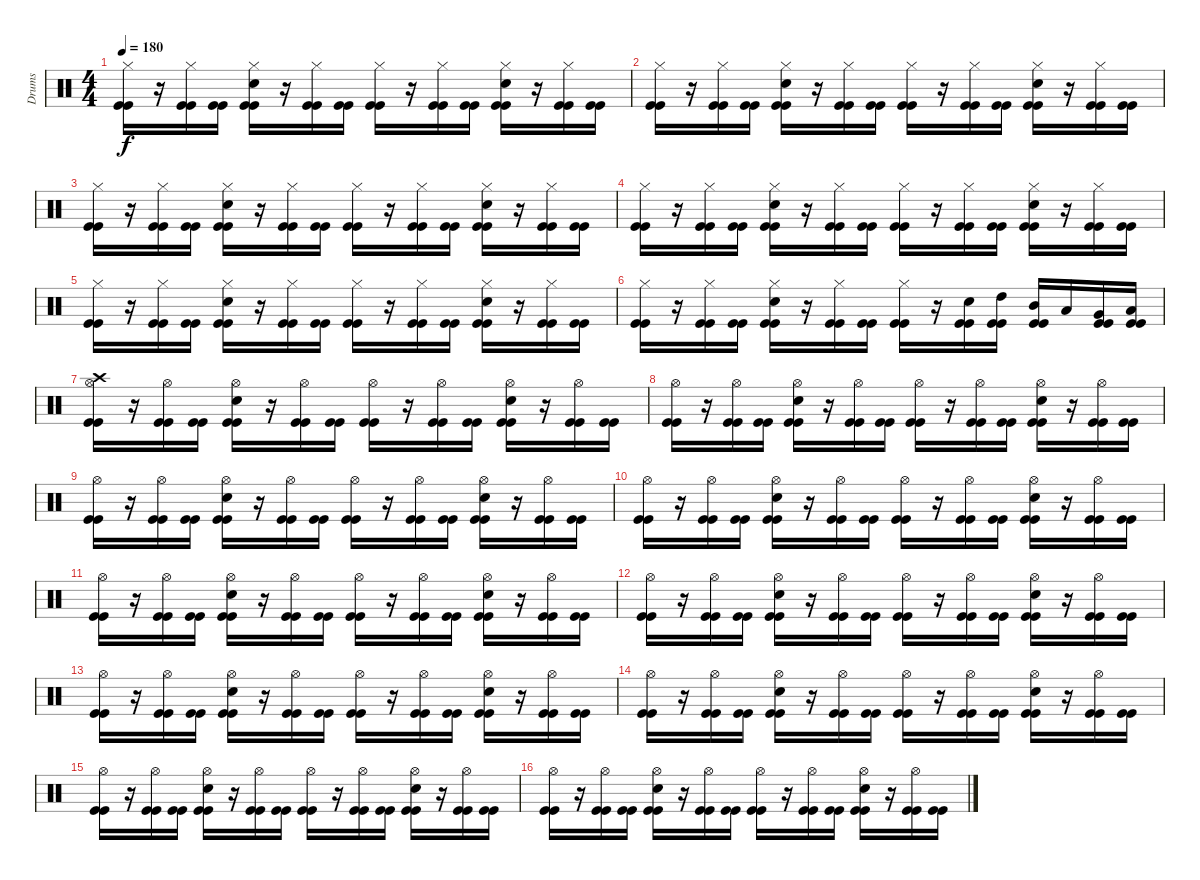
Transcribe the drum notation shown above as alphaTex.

\track ("Drums" "Drums") {instrument percussion}
\staff {score}
\articulation defaults
\ts (4 4)
\tempo 180
\clef neutral
\ks c
("Hi-Hat (closed)" "Kick (hit)" "Kick (hit)").16{dy f} r.16 ("Hi-Hat (closed)" "Kick (hit)" "Kick (hit)").16 ("Kick (hit)" "Kick (hit)").16 ("Snare (hit) 2" "Hi-Hat (closed)" "Kick (hit)" "Kick (hit)").16 r.16 ("Hi-Hat (closed)" "Kick (hit)" "Kick (hit)").16 ("Kick (hit)" "Kick (hit)").16 ("Hi-Hat (closed)" "Kick (hit)" "Kick (hit)").16 r.16 ("Hi-Hat (closed)" "Kick (hit)" "Kick (hit)").16 ("Kick (hit)" "Kick (hit)").16 ("Snare (hit) 2" "Hi-Hat (closed)" "Kick (hit)" "Kick (hit)").16 r.16 ("Hi-Hat (closed)" "Kick (hit)" "Kick (hit)").16 ("Kick (hit)" "Kick (hit)").16 |
("Hi-Hat (closed)" "Kick (hit)" "Kick (hit)").16 r.16 ("Hi-Hat (closed)" "Kick (hit)" "Kick (hit)").16 ("Kick (hit)" "Kick (hit)").16 ("Snare (hit) 2" "Hi-Hat (closed)" "Kick (hit)" "Kick (hit)").16 r.16 ("Hi-Hat (closed)" "Kick (hit)" "Kick (hit)").16 ("Kick (hit)" "Kick (hit)").16 ("Hi-Hat (closed)" "Kick (hit)" "Kick (hit)").16 r.16 ("Hi-Hat (closed)" "Kick (hit)" "Kick (hit)").16 ("Kick (hit)" "Kick (hit)").16 ("Snare (hit) 2" "Hi-Hat (closed)" "Kick (hit)" "Kick (hit)").16 r.16 ("Hi-Hat (closed)" "Kick (hit)" "Kick (hit)").16 ("Kick (hit)" "Kick (hit)").16 |
("Hi-Hat (closed)" "Kick (hit)" "Kick (hit)").16 r.16 ("Hi-Hat (closed)" "Kick (hit)" "Kick (hit)").16 ("Kick (hit)" "Kick (hit)").16 ("Snare (hit) 2" "Hi-Hat (closed)" "Kick (hit)" "Kick (hit)").16 r.16 ("Hi-Hat (closed)" "Kick (hit)" "Kick (hit)").16 ("Kick (hit)" "Kick (hit)").16 ("Hi-Hat (closed)" "Kick (hit)" "Kick (hit)").16 r.16 ("Hi-Hat (closed)" "Kick (hit)" "Kick (hit)").16 ("Kick (hit)" "Kick (hit)").16 ("Snare (hit) 2" "Hi-Hat (closed)" "Kick (hit)" "Kick (hit)").16 r.16 ("Hi-Hat (closed)" "Kick (hit)" "Kick (hit)").16 ("Kick (hit)" "Kick (hit)").16 |
("Hi-Hat (closed)" "Kick (hit)" "Kick (hit)").16 r.16 ("Hi-Hat (closed)" "Kick (hit)" "Kick (hit)").16 ("Kick (hit)" "Kick (hit)").16 ("Snare (hit) 2" "Hi-Hat (closed)" "Kick (hit)" "Kick (hit)").16 r.16 ("Hi-Hat (closed)" "Kick (hit)" "Kick (hit)").16 ("Kick (hit)" "Kick (hit)").16 ("Hi-Hat (closed)" "Kick (hit)" "Kick (hit)").16 r.16 ("Hi-Hat (closed)" "Kick (hit)" "Kick (hit)").16 ("Kick (hit)" "Kick (hit)").16 ("Snare (hit) 2" "Hi-Hat (closed)" "Kick (hit)" "Kick (hit)").16 r.16 ("Hi-Hat (closed)" "Kick (hit)" "Kick (hit)").16 ("Kick (hit)" "Kick (hit)").16 |
("Hi-Hat (closed)" "Kick (hit)" "Kick (hit)").16 r.16 ("Hi-Hat (closed)" "Kick (hit)" "Kick (hit)").16 ("Kick (hit)" "Kick (hit)").16 ("Snare (hit) 2" "Hi-Hat (closed)" "Kick (hit)" "Kick (hit)").16 r.16 ("Hi-Hat (closed)" "Kick (hit)" "Kick (hit)").16 ("Kick (hit)" "Kick (hit)").16 ("Hi-Hat (closed)" "Kick (hit)" "Kick (hit)").16 r.16 ("Hi-Hat (closed)" "Kick (hit)" "Kick (hit)").16 ("Kick (hit)" "Kick (hit)").16 ("Snare (hit) 2" "Hi-Hat (closed)" "Kick (hit)" "Kick (hit)").16 r.16 ("Hi-Hat (closed)" "Kick (hit)" "Kick (hit)").16 ("Kick (hit)" "Kick (hit)").16 |
("Hi-Hat (closed)" "Kick (hit)" "Kick (hit)").16 r.16 ("Hi-Hat (closed)" "Kick (hit)" "Kick (hit)").16 ("Kick (hit)" "Kick (hit)").16 ("Snare (hit) 2" "Hi-Hat (closed)" "Kick (hit)" "Kick (hit)").16 r.16 ("Hi-Hat (closed)" "Kick (hit)" "Kick (hit)").16 ("Kick (hit)" "Kick (hit)").16 ("Hi-Hat (closed)" "Kick (hit)" "Kick (hit)").16 r.16 ("Snare (hit) 2" "Kick (hit)" "Kick (hit)").16 ("High Tom (hit)" "Kick (hit)" "Kick (hit)").16 ("Mid Tom (hit)" "Kick (hit)" "Kick (hit)").16 "Low Tom (hit)".16 ("Very Low Tom (hit)" "Kick (hit)" "Kick (hit)").16 ("Low Floor Tom (hit)" "Kick (hit)" "Kick (hit)").16 |
("Crash high (hit)" "Hi-Hat (open)" "Kick (hit)" "Kick (hit)").16 r.16 ("Hi-Hat (open)" "Kick (hit)" "Kick (hit)").16 ("Kick (hit)" "Kick (hit)").16 ("Snare (hit) 2" "Hi-Hat (open)" "Kick (hit)" "Kick (hit)").16 r.16 ("Hi-Hat (open)" "Kick (hit)" "Kick (hit)").16 ("Kick (hit)" "Kick (hit)").16 ("Hi-Hat (open)" "Kick (hit)" "Kick (hit)").16 r.16 ("Hi-Hat (open)" "Kick (hit)" "Kick (hit)").16 ("Kick (hit)" "Kick (hit)").16 ("Snare (hit) 2" "Hi-Hat (open)" "Kick (hit)" "Kick (hit)").16 r.16 ("Hi-Hat (open)" "Kick (hit)" "Kick (hit)").16 ("Kick (hit)" "Kick (hit)").16 |
("Hi-Hat (open)" "Kick (hit)" "Kick (hit)").16 r.16 ("Hi-Hat (open)" "Kick (hit)" "Kick (hit)").16 ("Kick (hit)" "Kick (hit)").16 ("Snare (hit) 2" "Hi-Hat (open)" "Kick (hit)" "Kick (hit)").16 r.16 ("Hi-Hat (open)" "Kick (hit)" "Kick (hit)").16 ("Kick (hit)" "Kick (hit)").16 ("Hi-Hat (open)" "Kick (hit)" "Kick (hit)").16 r.16 ("Hi-Hat (open)" "Kick (hit)" "Kick (hit)").16 ("Kick (hit)" "Kick (hit)").16 ("Snare (hit) 2" "Hi-Hat (open)" "Kick (hit)" "Kick (hit)").16 r.16 ("Hi-Hat (open)" "Kick (hit)" "Kick (hit)").16 ("Kick (hit)" "Kick (hit)").16 |
("Hi-Hat (open)" "Kick (hit)" "Kick (hit)").16 r.16 ("Hi-Hat (open)" "Kick (hit)" "Kick (hit)").16 ("Kick (hit)" "Kick (hit)").16 ("Snare (hit) 2" "Hi-Hat (open)" "Kick (hit)" "Kick (hit)").16 r.16 ("Hi-Hat (open)" "Kick (hit)" "Kick (hit)").16 ("Kick (hit)" "Kick (hit)").16 ("Hi-Hat (open)" "Kick (hit)" "Kick (hit)").16 r.16 ("Hi-Hat (open)" "Kick (hit)" "Kick (hit)").16 ("Kick (hit)" "Kick (hit)").16 ("Snare (hit) 2" "Hi-Hat (open)" "Kick (hit)" "Kick (hit)").16 r.16 ("Hi-Hat (open)" "Kick (hit)" "Kick (hit)").16 ("Kick (hit)" "Kick (hit)").16 |
("Hi-Hat (open)" "Kick (hit)" "Kick (hit)").16 r.16 ("Hi-Hat (open)" "Kick (hit)" "Kick (hit)").16 ("Kick (hit)" "Kick (hit)").16 ("Snare (hit) 2" "Hi-Hat (open)" "Kick (hit)" "Kick (hit)").16 r.16 ("Hi-Hat (open)" "Kick (hit)" "Kick (hit)").16 ("Kick (hit)" "Kick (hit)").16 ("Hi-Hat (open)" "Kick (hit)" "Kick (hit)").16 r.16 ("Hi-Hat (open)" "Kick (hit)" "Kick (hit)").16 ("Kick (hit)" "Kick (hit)").16 ("Snare (hit) 2" "Hi-Hat (open)" "Kick (hit)" "Kick (hit)").16 r.16 ("Hi-Hat (open)" "Kick (hit)" "Kick (hit)").16 ("Kick (hit)" "Kick (hit)").16 |
("Hi-Hat (open)" "Kick (hit)" "Kick (hit)").16 r.16 ("Hi-Hat (open)" "Kick (hit)" "Kick (hit)").16 ("Kick (hit)" "Kick (hit)").16 ("Snare (hit) 2" "Hi-Hat (open)" "Kick (hit)" "Kick (hit)").16 r.16 ("Hi-Hat (open)" "Kick (hit)" "Kick (hit)").16 ("Kick (hit)" "Kick (hit)").16 ("Hi-Hat (open)" "Kick (hit)" "Kick (hit)").16 r.16 ("Hi-Hat (open)" "Kick (hit)" "Kick (hit)").16 ("Kick (hit)" "Kick (hit)").16 ("Snare (hit) 2" "Hi-Hat (open)" "Kick (hit)" "Kick (hit)").16 r.16 ("Hi-Hat (open)" "Kick (hit)" "Kick (hit)").16 ("Kick (hit)" "Kick (hit)").16 |
("Hi-Hat (open)" "Kick (hit)" "Kick (hit)").16 r.16 ("Hi-Hat (open)" "Kick (hit)" "Kick (hit)").16 ("Kick (hit)" "Kick (hit)").16 ("Snare (hit) 2" "Hi-Hat (open)" "Kick (hit)" "Kick (hit)").16 r.16 ("Hi-Hat (open)" "Kick (hit)" "Kick (hit)").16 ("Kick (hit)" "Kick (hit)").16 ("Hi-Hat (open)" "Kick (hit)" "Kick (hit)").16 r.16 ("Hi-Hat (open)" "Kick (hit)" "Kick (hit)").16 ("Kick (hit)" "Kick (hit)").16 ("Snare (hit) 2" "Hi-Hat (open)" "Kick (hit)" "Kick (hit)").16 r.16 ("Hi-Hat (open)" "Kick (hit)" "Kick (hit)").16 ("Kick (hit)" "Kick (hit)").16 |
("Hi-Hat (open)" "Kick (hit)" "Kick (hit)").16 r.16 ("Hi-Hat (open)" "Kick (hit)" "Kick (hit)").16 ("Kick (hit)" "Kick (hit)").16 ("Snare (hit) 2" "Hi-Hat (open)" "Kick (hit)" "Kick (hit)").16 r.16 ("Hi-Hat (open)" "Kick (hit)" "Kick (hit)").16 ("Kick (hit)" "Kick (hit)").16 ("Hi-Hat (open)" "Kick (hit)" "Kick (hit)").16 r.16 ("Hi-Hat (open)" "Kick (hit)" "Kick (hit)").16 ("Kick (hit)" "Kick (hit)").16 ("Snare (hit) 2" "Hi-Hat (open)" "Kick (hit)" "Kick (hit)").16 r.16 ("Hi-Hat (open)" "Kick (hit)" "Kick (hit)").16 ("Kick (hit)" "Kick (hit)").16 |
("Hi-Hat (open)" "Kick (hit)" "Kick (hit)").16 r.16 ("Hi-Hat (open)" "Kick (hit)" "Kick (hit)").16 ("Kick (hit)" "Kick (hit)").16 ("Snare (hit) 2" "Hi-Hat (open)" "Kick (hit)" "Kick (hit)").16 r.16 ("Hi-Hat (open)" "Kick (hit)" "Kick (hit)").16 ("Kick (hit)" "Kick (hit)").16 ("Hi-Hat (open)" "Kick (hit)" "Kick (hit)").16 r.16 ("Hi-Hat (open)" "Kick (hit)" "Kick (hit)").16 ("Kick (hit)" "Kick (hit)").16 ("Snare (hit) 2" "Hi-Hat (open)" "Kick (hit)" "Kick (hit)").16 r.16 ("Hi-Hat (open)" "Kick (hit)" "Kick (hit)").16 ("Kick (hit)" "Kick (hit)").16 |
("Hi-Hat (open)" "Kick (hit)" "Kick (hit)").16 r.16 ("Hi-Hat (open)" "Kick (hit)" "Kick (hit)").16 ("Kick (hit)" "Kick (hit)").16 ("Snare (hit) 2" "Hi-Hat (open)" "Kick (hit)" "Kick (hit)").16 r.16 ("Hi-Hat (open)" "Kick (hit)" "Kick (hit)").16 ("Kick (hit)" "Kick (hit)").16 ("Hi-Hat (open)" "Kick (hit)" "Kick (hit)").16 r.16 ("Hi-Hat (open)" "Kick (hit)" "Kick (hit)").16 ("Kick (hit)" "Kick (hit)").16 ("Snare (hit) 2" "Hi-Hat (open)" "Kick (hit)" "Kick (hit)").16 r.16 ("Hi-Hat (open)" "Kick (hit)" "Kick (hit)").16 ("Kick (hit)" "Kick (hit)").16 |
("Hi-Hat (open)" "Kick (hit)" "Kick (hit)").16 r.16 ("Hi-Hat (open)" "Kick (hit)" "Kick (hit)").16 ("Kick (hit)" "Kick (hit)").16 ("Snare (hit) 2" "Hi-Hat (open)" "Kick (hit)" "Kick (hit)").16 r.16 ("Hi-Hat (open)" "Kick (hit)" "Kick (hit)").16 ("Kick (hit)" "Kick (hit)").16 ("Hi-Hat (open)" "Kick (hit)" "Kick (hit)").16 r.16 ("Hi-Hat (open)" "Kick (hit)" "Kick (hit)").16 ("Kick (hit)" "Kick (hit)").16 ("Snare (hit) 2" "Hi-Hat (open)" "Kick (hit)" "Kick (hit)").16 r.16 ("Hi-Hat (open)" "Kick (hit)" "Kick (hit)").16 ("Kick (hit)" "Kick (hit)").16
